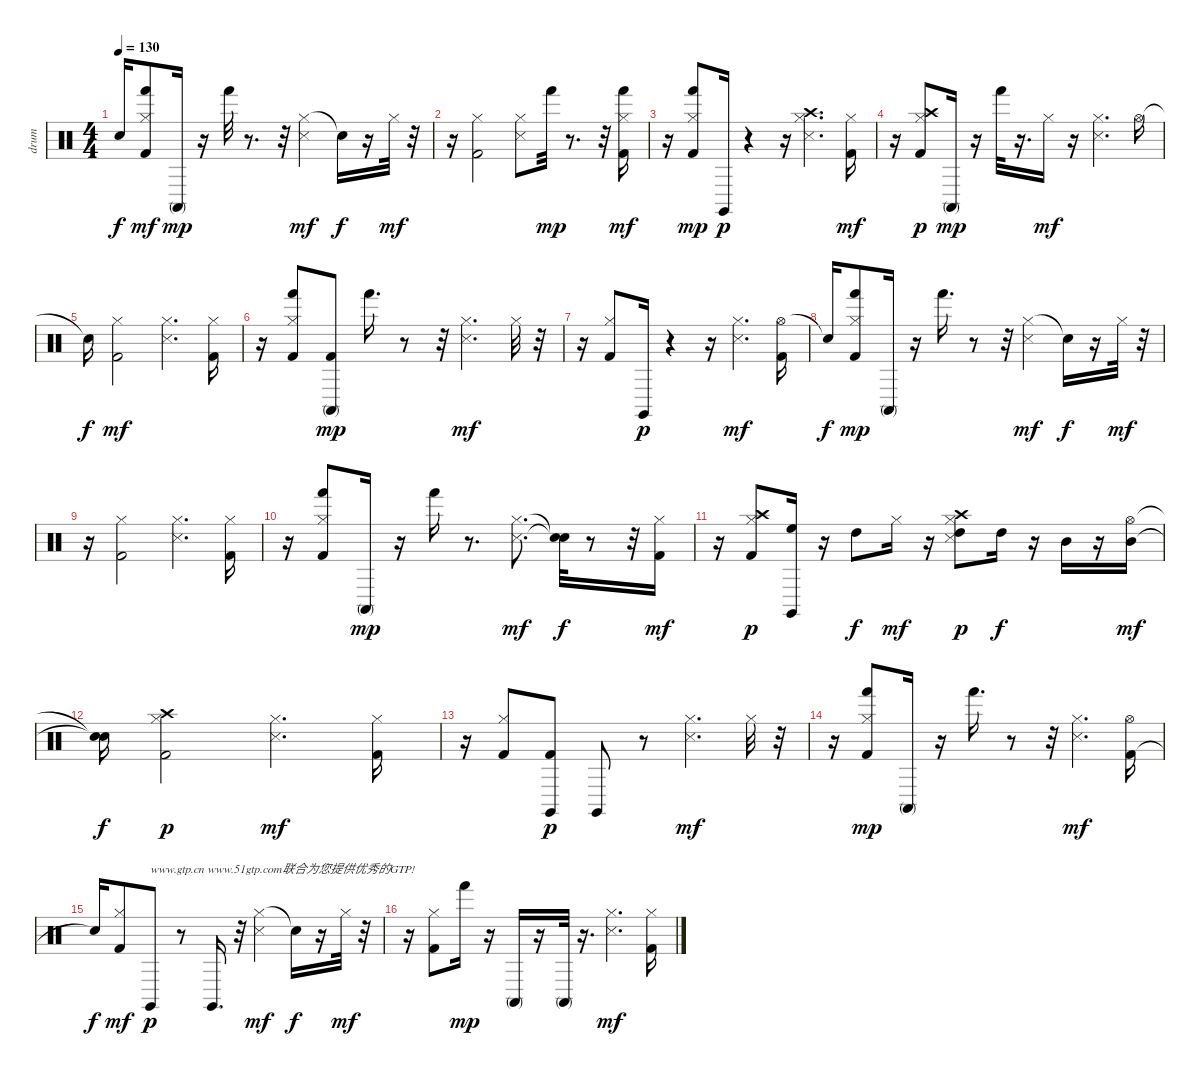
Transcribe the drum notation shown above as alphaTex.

\track ("drum" "drum") {instrument percussion}
\staff {score}
\articulation defaults
\ts (4 4)
\tempo 130
\clef neutral
\ks c "Snare (hit)"{t}.16{dy f}
("Hand (hit)" "Hi-Hat (closed)" "Kick (hit) 2").8{dy mf} "Conga high (mute)".16{dy mp} r.16 "Hand (hit)".32 r.8{d} r.32 ("Hi-Hat (closed)" "Snare (side stick) 3").4{dy mf} "Snare (hit)"{t}.16{dy f} r.16 "Hi-Hat (closed)".32{dy mf} r.32 |
r.16 ("Kick (hit) 2" "Hi-Hat (closed)").2 ("Hi-Hat (closed)" "Snare (side stick) 3").8 "Hand (hit)".32{dy mp} r.8{d} r.32 ("Hand (hit)" "Hi-Hat (closed)" "Kick (hit) 2").16{dy mf} |
r.16 ("Kick (hit) 2" "Hi-Hat (closed)" "Hand (hit)").8{dy mp} "Claves (hit)".16{dy p} r.4 r.16 ("Snare (side stick) 3" "Hi-Hat (closed)" "Crash high (hit)").4{d} ("Kick (hit) 2" "Hi-Hat (closed)").16{dy mf} |
r.16 ("Kick (hit) 2" "Hi-Hat (closed)" "Crash high (hit)").8{dy p} "Conga high (mute)".16{dy mp} r.16 "Hand (hit)".32 r.16{d} "Hi-Hat (closed)".16{dy mf} r.16 ("Hi-Hat (closed)" "Snare (side stick) 3").4{d} "Hi-Hat (open)".16 |
"Snare (hit)"{t}.16{dy f} ("Kick (hit) 2" "Hi-Hat (closed)").2{dy mf} ("Snare (side stick) 3" "Hi-Hat (closed)").4{d} ("Hi-Hat (closed)" "Kick (hit) 2").16 |
r.16 ("Hand (hit)" "Hi-Hat (closed)" "Kick (hit) 2").8 ("Kick (hit) 2" "Conga high (mute)").8{dy mp} "Hand (hit)".16{d} r.8 r.32 ("Hi-Hat (closed)" "Snare (side stick) 3").4{d dy mf} "Hi-Hat (closed)".32 r.32 |
r.16 ("Kick (hit) 2" "Hi-Hat (closed)").8 "Claves (hit)".16{dy p} r.4 r.16 ("Hi-Hat (closed)" "Snare (side stick) 3").4{d dy mf} ("Hi-Hat (open)" "Kick (hit) 2").16 |
"Snare (hit)"{t}.16{dy f} ("Kick (hit) 2" "Hi-Hat (closed)" "Hand (hit)").8{dy mp} "Conga high (mute)".16 r.16 "Hand (hit)".16{d} r.8 r.32 ("Hi-Hat (closed)" "Snare (side stick) 3").4{dy mf} "Snare (hit)"{t}.16{dy f} r.16 "Hi-Hat (closed)".32{dy mf} r.32 |
r.16 ("Kick (hit) 2" "Hi-Hat (closed)").2 ("Hi-Hat (closed)" "Snare (side stick) 3").4{d} ("Kick (hit) 2" "Hi-Hat (closed)").16 |
r.16 ("Kick (hit) 2" "Hand (hit)" "Hi-Hat (closed)").8 "Conga high (mute)".16{dy mp} r.16 "Hand (hit)".16 r.8{d} ("Hi-Hat (closed)" "Snare (side stick) 3").8{d dy mf} ("Snare (hit)"{t} "Snare (hit)"{t}).32{dy f} r.8 r.32 ("Kick (hit) 2" "Hi-Hat (closed)").16{dy mf} |
r.16 ("Kick (hit) 2" "Hi-Hat (closed)" "Crash high (hit)").8{dy p} ("Claves (hit)" "High Floor Tom (hit)").16 r.16 "High Tom (hit)".8{dy f} "Hi-Hat (closed)".16{dy mf} r.16 ("Hi-Hat (closed)" "Snare (side stick) 3" "High Tom (hit)" "Crash high (hit)").8{dy p} "High Tom (hit)".16{dy f} r.16 "Mid Tom (hit)".16 r.16 ("Hi-Hat (open)" "Mid Tom (hit)").16{dy mf} |
("Snare (hit)"{t} "Snare (hit)"{t}).16{dy f} ("Kick (hit) 2" "Hi-Hat (closed)" "Crash high (hit)").2{dy p} ("Hi-Hat (closed)" "Snare (side stick) 3").4{d dy mf} ("Kick (hit) 2" "Hi-Hat (closed)").16 |
r.16 ("Kick (hit) 2" "Hi-Hat (closed)").8 ("Kick (hit) 2" "Claves (hit)").8{dy p} "Claves (hit)".8 r.8 ("Snare (side stick) 3" "Hi-Hat (closed)").4{d dy mf} "Hi-Hat (closed)".32 r.32 |
r.16 ("Kick (hit) 2" "Hi-Hat (closed)" "Hand (hit)").8{dy mp} "Conga high (mute)".16 r.16 "Hand (hit)".16{d} r.8 r.32 ("Hi-Hat (closed)" "Snare (side stick) 3").4{d dy mf} ("Kick (hit) 2" "Hi-Hat (open)").16 |
"Snare (hit)"{t}.16{dy f} ("Kick (hit) 2" "Hi-Hat (closed)").8{dy mf} "Claves (hit)".8{txt "www.gtp.cn www.51gtp.com联合为您提供优秀的GTP!" dy p} r.8 "Claves (hit)".16{d} r.32 ("Hi-Hat (closed)" "Snare (side stick) 3").4{dy mf} "Snare (hit)"{t}.16{dy f} r.16 "Hi-Hat (closed)".32{dy mf} r.32 |
r.16 ("Hi-Hat (closed)" "Kick (hit) 2").8 "Hand (hit)".16{dy mp} r.16 "Conga high (mute)".16 r.16 "Conga high (mute)".32 r.16{d} ("Hi-Hat (closed)" "Snare (side stick) 3").4{d dy mf} ("Kick (hit) 2" "Hi-Hat (closed)").16
